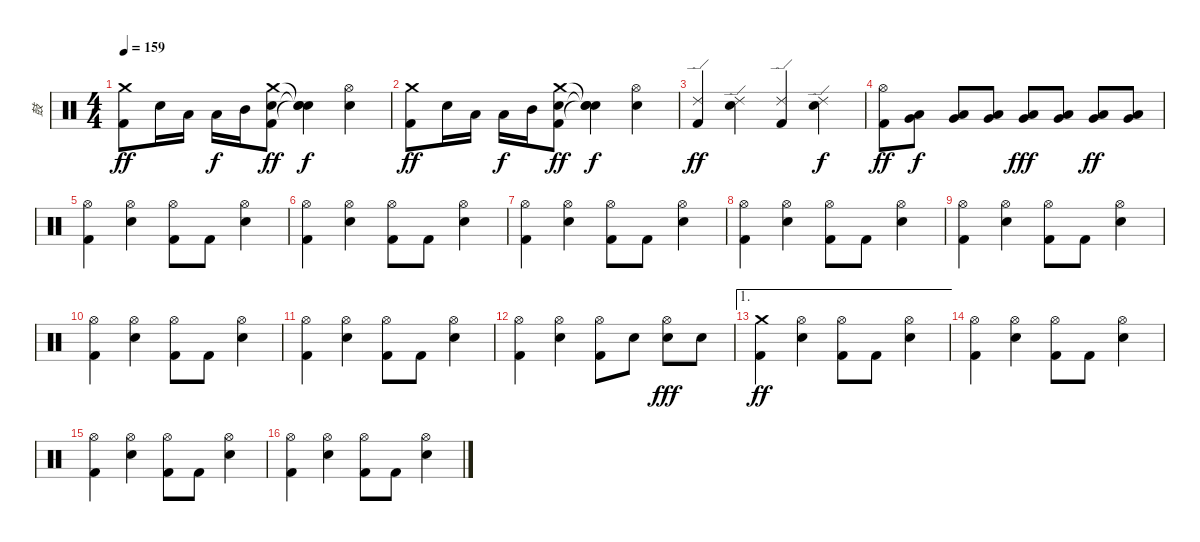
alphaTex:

\track ("鼓" "鼓") {instrument percussion}
\staff {score}
\articulation defaults
\ts (4 4)
\tempo 159
\clef neutral
\ks c
("Crash medium (hit)" "Kick (hit) 2").8{dy ff} "Electric Snare (hit)".16 "Low Tom (hit)".16 "Low Tom (hit)".16{dy f} "Mid Tom (hit)".16 ("Crash medium (hit)" "Electric Snare (hit)" "Kick (hit) 2").8{dy ff} ("Snare (hit)"{t} "Snare (hit)"{t} "Snare (hit)"{t}).4{dy f} ("Hi-Hat (open)" "Electric Snare (hit)").4 |
("Crash medium (hit)" "Kick (hit) 2").8{dy ff} "Electric Snare (hit)".16 "Low Tom (hit)".16 "Low Tom (hit)".16{dy f} "Mid Tom (hit)".16 ("Crash medium (hit)" "Electric Snare (hit)" "Kick (hit) 2").8{dy ff} ("Snare (hit)"{t} "Snare (hit)"{t} "Snare (hit)"{t}).4{dy f} ("Hi-Hat (open)" "Electric Snare (hit)").4 |
("Ride (edge) 2" "Kick (hit) 2").4{dy ff} ("Ride (edge) 2" "Electric Snare (hit)").4 ("Ride (edge) 2" "Kick (hit) 2").4 ("Ride (edge) 2" "Electric Snare (hit)").4{dy f} |
("Hi-Hat (open)" "Kick (hit) 2").8{dy ff} ("Very Low Tom (hit)" "Low Tom (hit)").8{dy f} ("Very Low Tom (hit)" "Low Tom (hit)").8 ("Very Low Tom (hit)" "Low Tom (hit)").8 ("Very Low Tom (hit)" "Low Tom (hit)").8{dy fff} ("Very Low Tom (hit)" "Low Tom (hit)").8 ("Very Low Tom (hit)" "Low Tom (hit)").8{dy ff} ("Very Low Tom (hit)" "Low Tom (hit)").8 |
("Hi-Hat (open)" "Kick (hit) 2").4 ("Hi-Hat (open)" "Electric Snare (hit)").4 ("Hi-Hat (open)" "Kick (hit) 2").8 "Kick (hit) 2".8 ("Hi-Hat (open)" "Electric Snare (hit)").4 |
("Hi-Hat (open)" "Kick (hit) 2").4 ("Hi-Hat (open)" "Electric Snare (hit)").4 ("Hi-Hat (open)" "Kick (hit) 2").8 "Kick (hit) 2".8 ("Hi-Hat (open)" "Electric Snare (hit)").4 |
("Hi-Hat (open)" "Kick (hit) 2").4 ("Hi-Hat (open)" "Electric Snare (hit)").4 ("Hi-Hat (open)" "Kick (hit) 2").8 "Kick (hit) 2".8 ("Hi-Hat (open)" "Electric Snare (hit)").4 |
("Hi-Hat (open)" "Kick (hit) 2").4 ("Hi-Hat (open)" "Electric Snare (hit)").4 ("Hi-Hat (open)" "Kick (hit) 2").8 "Kick (hit) 2".8 ("Hi-Hat (open)" "Electric Snare (hit)").4 |
("Hi-Hat (open)" "Kick (hit) 2").4 ("Hi-Hat (open)" "Electric Snare (hit)").4 ("Hi-Hat (open)" "Kick (hit) 2").8 "Kick (hit) 2".8 ("Hi-Hat (open)" "Electric Snare (hit)").4 |
("Hi-Hat (open)" "Kick (hit) 2").4 ("Hi-Hat (open)" "Electric Snare (hit)").4 ("Hi-Hat (open)" "Kick (hit) 2").8 "Kick (hit) 2".8 ("Hi-Hat (open)" "Electric Snare (hit)").4 |
("Hi-Hat (open)" "Kick (hit) 2").4 ("Hi-Hat (open)" "Electric Snare (hit)").4 ("Hi-Hat (open)" "Kick (hit) 2").8 "Kick (hit) 2".8 ("Hi-Hat (open)" "Electric Snare (hit)").4 |
("Hi-Hat (open)" "Kick (hit) 2").4 ("Hi-Hat (open)" "Electric Snare (hit)").4 ("Hi-Hat (open)" "Kick (hit) 2").8 "Electric Snare (hit)".8 ("Hi-Hat (open)" "Electric Snare (hit)").8{dy fff} "Electric Snare (hit)".8 |
\ae 1
("Crash medium (hit)" "Kick (hit) 2").4{dy ff} ("Hi-Hat (open)" "Electric Snare (hit)").4 ("Hi-Hat (open)" "Kick (hit) 2").8 "Kick (hit) 2".8 ("Hi-Hat (open)" "Electric Snare (hit)").4 |
("Hi-Hat (open)" "Kick (hit) 2").4 ("Hi-Hat (open)" "Electric Snare (hit)").4 ("Hi-Hat (open)" "Kick (hit) 2").8 "Kick (hit) 2".8 ("Hi-Hat (open)" "Electric Snare (hit)").4 |
("Hi-Hat (open)" "Kick (hit) 2").4 ("Hi-Hat (open)" "Electric Snare (hit)").4 ("Hi-Hat (open)" "Kick (hit) 2").8 "Kick (hit) 2".8 ("Hi-Hat (open)" "Electric Snare (hit)").4 |
("Hi-Hat (open)" "Kick (hit) 2").4 ("Hi-Hat (open)" "Electric Snare (hit)").4 ("Hi-Hat (open)" "Kick (hit) 2").8 "Kick (hit) 2".8 ("Hi-Hat (open)" "Electric Snare (hit)").4
